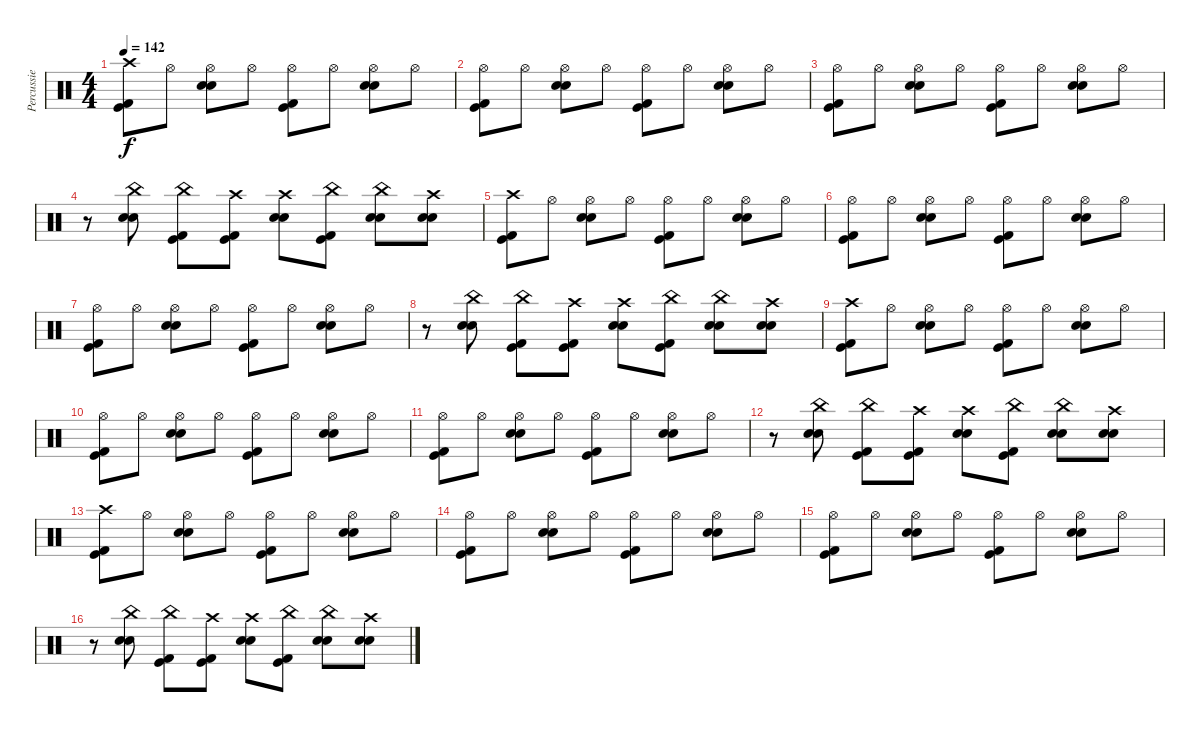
\track ("Percussie" "Percussie") {instrument percussion}
\staff {score}
\articulation defaults
\ts (4 4)
\tempo 142
\clef neutral
\ks c
("Kick (hit) 2" "Kick (hit)" "Crash high (hit)").8{dy f} "Hi-Hat (open)".8 ("Snare (hit) 2" "Electric Snare (hit)" "Hi-Hat (open)").8 "Hi-Hat (open)".8 ("Kick (hit) 2" "Kick (hit)" "Hi-Hat (open)").8 "Hi-Hat (open)".8 ("Snare (hit) 2" "Electric Snare (hit)" "Hi-Hat (open)").8 "Hi-Hat (open)".8 |
("Kick (hit) 2" "Kick (hit)" "Hi-Hat (open)").8 "Hi-Hat (open)".8 ("Snare (hit) 2" "Electric Snare (hit)" "Hi-Hat (open)").8 "Hi-Hat (open)".8 ("Kick (hit) 2" "Kick (hit)" "Hi-Hat (open)").8 "Hi-Hat (open)".8 ("Snare (hit) 2" "Electric Snare (hit)" "Hi-Hat (open)").8 "Hi-Hat (open)".8 |
("Kick (hit) 2" "Kick (hit)" "Hi-Hat (open)").8 "Hi-Hat (open)".8 ("Snare (hit) 2" "Electric Snare (hit)" "Hi-Hat (open)").8 "Hi-Hat (open)".8 ("Kick (hit) 2" "Kick (hit)" "Hi-Hat (open)").8 "Hi-Hat (open)".8 ("Snare (hit) 2" "Electric Snare (hit)" "Hi-Hat (open)").8 "Hi-Hat (open)".8 |
r.8 ("Snare (hit) 2" "Electric Snare (hit)" "China (hit)").8 ("Kick (hit)" "Kick (hit) 2" "China (hit)").8 ("Kick (hit)" "Kick (hit) 2" "Crash high (hit)").8 ("Snare (hit) 2" "Electric Snare (hit)" "Crash high (hit)").8 ("Kick (hit)" "Kick (hit) 2" "China (hit)").8 ("Snare (hit) 2" "Electric Snare (hit)" "China (hit)").8 ("Snare (hit) 2" "Electric Snare (hit)" "Crash high (hit)").8 |
("Kick (hit) 2" "Kick (hit)" "Crash high (hit)").8 "Hi-Hat (open)".8 ("Snare (hit) 2" "Electric Snare (hit)" "Hi-Hat (open)").8 "Hi-Hat (open)".8 ("Kick (hit) 2" "Kick (hit)" "Hi-Hat (open)").8 "Hi-Hat (open)".8 ("Snare (hit) 2" "Electric Snare (hit)" "Hi-Hat (open)").8 "Hi-Hat (open)".8 |
("Kick (hit) 2" "Kick (hit)" "Hi-Hat (open)").8 "Hi-Hat (open)".8 ("Snare (hit) 2" "Electric Snare (hit)" "Hi-Hat (open)").8 "Hi-Hat (open)".8 ("Kick (hit) 2" "Kick (hit)" "Hi-Hat (open)").8 "Hi-Hat (open)".8 ("Snare (hit) 2" "Electric Snare (hit)" "Hi-Hat (open)").8 "Hi-Hat (open)".8 |
("Kick (hit) 2" "Kick (hit)" "Hi-Hat (open)").8 "Hi-Hat (open)".8 ("Snare (hit) 2" "Electric Snare (hit)" "Hi-Hat (open)").8 "Hi-Hat (open)".8 ("Kick (hit) 2" "Kick (hit)" "Hi-Hat (open)").8 "Hi-Hat (open)".8 ("Snare (hit) 2" "Electric Snare (hit)" "Hi-Hat (open)").8 "Hi-Hat (open)".8 |
r.8 ("Snare (hit) 2" "Electric Snare (hit)" "China (hit)").8 ("Kick (hit)" "Kick (hit) 2" "China (hit)").8 ("Kick (hit)" "Kick (hit) 2" "Crash high (hit)").8 ("Snare (hit) 2" "Electric Snare (hit)" "Crash high (hit)").8 ("Kick (hit)" "Kick (hit) 2" "China (hit)").8 ("Snare (hit) 2" "Electric Snare (hit)" "China (hit)").8 ("Snare (hit) 2" "Electric Snare (hit)" "Crash high (hit)").8 |
("Kick (hit) 2" "Kick (hit)" "Crash high (hit)").8 "Hi-Hat (open)".8 ("Snare (hit) 2" "Electric Snare (hit)" "Hi-Hat (open)").8 "Hi-Hat (open)".8 ("Kick (hit) 2" "Kick (hit)" "Hi-Hat (open)").8 "Hi-Hat (open)".8 ("Snare (hit) 2" "Electric Snare (hit)" "Hi-Hat (open)").8 "Hi-Hat (open)".8 |
("Kick (hit) 2" "Kick (hit)" "Hi-Hat (open)").8 "Hi-Hat (open)".8 ("Snare (hit) 2" "Electric Snare (hit)" "Hi-Hat (open)").8 "Hi-Hat (open)".8 ("Kick (hit) 2" "Kick (hit)" "Hi-Hat (open)").8 "Hi-Hat (open)".8 ("Snare (hit) 2" "Electric Snare (hit)" "Hi-Hat (open)").8 "Hi-Hat (open)".8 |
("Kick (hit) 2" "Kick (hit)" "Hi-Hat (open)").8 "Hi-Hat (open)".8 ("Snare (hit) 2" "Electric Snare (hit)" "Hi-Hat (open)").8 "Hi-Hat (open)".8 ("Kick (hit) 2" "Kick (hit)" "Hi-Hat (open)").8 "Hi-Hat (open)".8 ("Snare (hit) 2" "Electric Snare (hit)" "Hi-Hat (open)").8 "Hi-Hat (open)".8 |
r.8 ("Snare (hit) 2" "Electric Snare (hit)" "China (hit)").8 ("Kick (hit)" "Kick (hit) 2" "China (hit)").8 ("Kick (hit)" "Kick (hit) 2" "Crash high (hit)").8 ("Snare (hit) 2" "Electric Snare (hit)" "Crash high (hit)").8 ("Kick (hit)" "Kick (hit) 2" "China (hit)").8 ("Snare (hit) 2" "Electric Snare (hit)" "China (hit)").8 ("Snare (hit) 2" "Electric Snare (hit)" "Crash high (hit)").8 |
("Kick (hit) 2" "Kick (hit)" "Crash high (hit)").8 "Hi-Hat (open)".8 ("Snare (hit) 2" "Electric Snare (hit)" "Hi-Hat (open)").8 "Hi-Hat (open)".8 ("Kick (hit) 2" "Kick (hit)" "Hi-Hat (open)").8 "Hi-Hat (open)".8 ("Snare (hit) 2" "Electric Snare (hit)" "Hi-Hat (open)").8 "Hi-Hat (open)".8 |
("Kick (hit) 2" "Kick (hit)" "Hi-Hat (open)").8 "Hi-Hat (open)".8 ("Snare (hit) 2" "Electric Snare (hit)" "Hi-Hat (open)").8 "Hi-Hat (open)".8 ("Kick (hit) 2" "Kick (hit)" "Hi-Hat (open)").8 "Hi-Hat (open)".8 ("Snare (hit) 2" "Electric Snare (hit)" "Hi-Hat (open)").8 "Hi-Hat (open)".8 |
("Kick (hit) 2" "Kick (hit)" "Hi-Hat (open)").8 "Hi-Hat (open)".8 ("Snare (hit) 2" "Electric Snare (hit)" "Hi-Hat (open)").8 "Hi-Hat (open)".8 ("Kick (hit) 2" "Kick (hit)" "Hi-Hat (open)").8 "Hi-Hat (open)".8 ("Snare (hit) 2" "Electric Snare (hit)" "Hi-Hat (open)").8 "Hi-Hat (open)".8 |
r.8 ("Snare (hit) 2" "Electric Snare (hit)" "China (hit)").8 ("Kick (hit)" "Kick (hit) 2" "China (hit)").8 ("Kick (hit)" "Kick (hit) 2" "Crash high (hit)").8 ("Snare (hit) 2" "Electric Snare (hit)" "Crash high (hit)").8 ("Kick (hit)" "Kick (hit) 2" "China (hit)").8 ("Snare (hit) 2" "Electric Snare (hit)" "China (hit)").8 ("Snare (hit) 2" "Electric Snare (hit)" "Crash high (hit)").8
